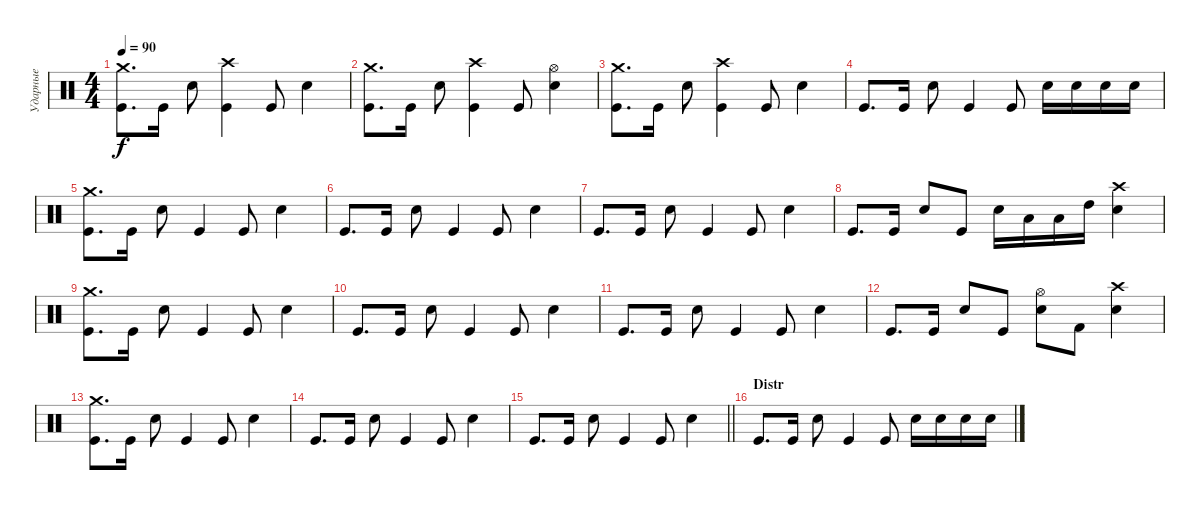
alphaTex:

\track ("Ударные" "Ударные") {instrument percussion}
\staff {score}
\articulation defaults
\ts (4 4)
\tempo 90
\clef neutral
\ks c
("Crash medium (hit)" "Kick (hit)").8{d dy f} "Kick (hit)".16 "Snare (hit) 2".8 ("Crash high (hit)" "Kick (hit)").4 "Kick (hit)".8 "Snare (hit) 2".4 |
("Crash medium (hit)" "Kick (hit)").8{d} "Kick (hit)".16 "Snare (hit) 2".8 ("Crash high (hit)" "Kick (hit)").4 "Kick (hit)".8 ("Hi-Hat (open)" "Snare (hit) 2").4 |
("Crash medium (hit)" "Kick (hit)").8{d} "Kick (hit)".16 "Snare (hit) 2".8 ("Crash high (hit)" "Kick (hit)").4 "Kick (hit)".8 "Snare (hit) 2".4 |
"Kick (hit)".8{d} "Kick (hit)".16 "Snare (hit) 2".8 "Kick (hit)".4 "Kick (hit)".8 "Snare (hit) 2".16 "Snare (hit) 2".16 "Snare (hit) 2".16 "Snare (hit) 2".16 |
("Crash medium (hit)" "Kick (hit)").8{d} "Kick (hit)".16 "Snare (hit) 2".8 "Kick (hit)".4 "Kick (hit)".8 "Snare (hit) 2".4 |
"Kick (hit)".8{d} "Kick (hit)".16 "Snare (hit) 2".8 "Kick (hit)".4 "Kick (hit)".8 "Snare (hit) 2".4 |
"Kick (hit)".8{d} "Kick (hit)".16 "Snare (hit) 2".8 "Kick (hit)".4 "Kick (hit)".8 "Snare (hit) 2".4 |
"Kick (hit)".8{d} "Kick (hit)".16 "Snare (hit) 2".8 "Kick (hit)".8 "Snare (hit) 2".16 "Low Floor Tom (hit)".16 "Low Tom (hit)".16 "High Tom (hit)".16 ("Crash high (hit)" "Snare (hit) 2").4 |
("Crash medium (hit)" "Kick (hit)").8{d} "Kick (hit)".16 "Snare (hit) 2".8 "Kick (hit)".4 "Kick (hit)".8 "Snare (hit) 2".4 |
"Kick (hit)".8{d} "Kick (hit)".16 "Snare (hit) 2".8 "Kick (hit)".4 "Kick (hit)".8 "Snare (hit) 2".4 |
"Kick (hit)".8{d} "Kick (hit)".16 "Snare (hit) 2".8 "Kick (hit)".4 "Kick (hit)".8 "Snare (hit) 2".4 |
"Kick (hit)".8{d} "Kick (hit)".16 "Snare (hit) 2".8 "Kick (hit)".8 ("Hi-Hat (open)" "Snare (hit) 2").8 "Kick (hit) 2".8 ("Crash high (hit)" "Snare (hit) 2").4 |
("Crash medium (hit)" "Kick (hit)").8{d} "Kick (hit)".16 "Snare (hit) 2".8 "Kick (hit)".4 "Kick (hit)".8 "Snare (hit) 2".4 |
"Kick (hit)".8{d} "Kick (hit)".16 "Snare (hit) 2".8 "Kick (hit)".4 "Kick (hit)".8 "Snare (hit) 2".4 |
\barLineRight lightlight "Kick (hit)".8{d} "Kick (hit)".16 "Snare (hit) 2".8 "Kick (hit)".4 "Kick (hit)".8 "Snare (hit) 2".4
|
\section ("" "Distr")
"Kick (hit)".8{d} "Kick (hit)".16 "Snare (hit) 2".8 "Kick (hit)".4 "Kick (hit)".8 "Snare (hit) 2".16 "Snare (hit) 2".16 "Snare (hit) 2".16 "Snare (hit) 2".16
